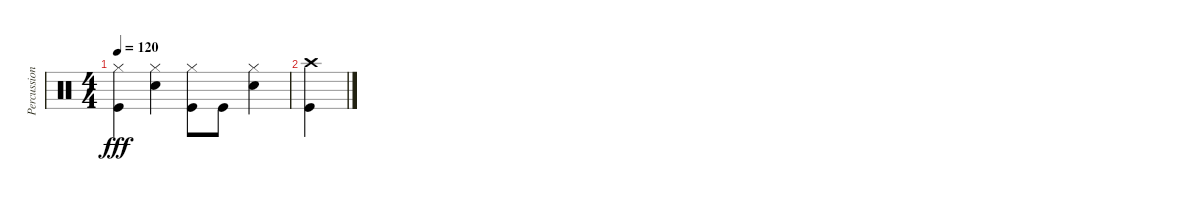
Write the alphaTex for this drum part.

\track ("Percussion" "Percussion") {instrument percussion}
\staff {score}
\articulation defaults
\ts (4 4)
\tempo 120
\clef neutral
\ks c
("Kick (hit)" "Hi-Hat (closed)").4{dy fff} ("Hi-Hat (closed)" "Snare (hit) 2").4 ("Kick (hit)" "Hi-Hat (closed)").8 "Kick (hit)".8 ("Hi-Hat (closed)" "Snare (hit) 2").4 |
("Kick (hit)" "Crash high (hit)").4
